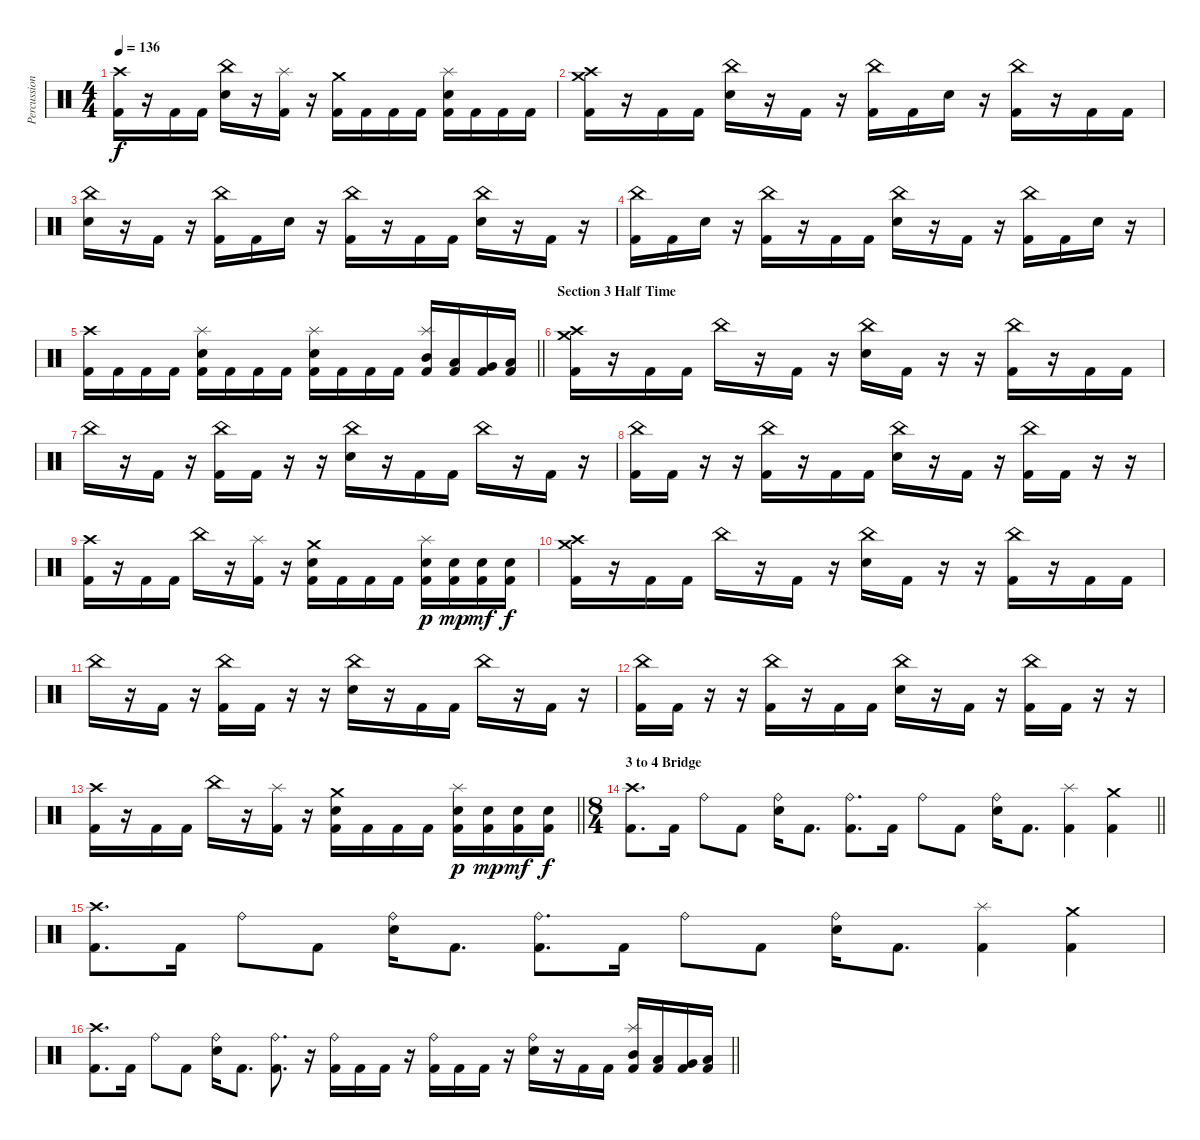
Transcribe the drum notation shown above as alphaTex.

\track ("Percussion" "Percussion") {instrument percussion}
\staff {score}
\articulation defaults
\ts (4 4)
\tempo 136
\clef neutral
\ks c
("Crash high (hit)" "Kick (hit) 2").16{dy f} r.16 "Kick (hit) 2".16 "Kick (hit) 2".16 ("China (hit)" "Electric Snare (hit)").16 r.16 ("Splash (hit)" "Kick (hit) 2").16 r.16 ("Crash medium (hit)" "Kick (hit) 2").16 "Kick (hit) 2".16 "Kick (hit) 2".16 "Kick (hit) 2".16 ("Splash (hit)" "Electric Snare (hit)" "Kick (hit) 2").16 "Kick (hit) 2".16 "Kick (hit) 2".16 "Kick (hit) 2".16 |
("Crash high (hit)" "Crash medium (hit)" "Kick (hit) 2").16 r.16 "Kick (hit) 2".16 "Kick (hit) 2".16 ("China (hit)" "Electric Snare (hit)").16 r.16 "Kick (hit) 2".16 r.16 ("China (hit)" "Kick (hit) 2").16 "Kick (hit) 2".16 "Electric Snare (hit)".16 r.16 ("China (hit)" "Kick (hit) 2").16 r.16 "Kick (hit) 2".16 "Kick (hit) 2".16 |
("China (hit)" "Electric Snare (hit)").16 r.16 "Kick (hit) 2".16 r.16 ("China (hit)" "Kick (hit) 2").16 "Kick (hit) 2".16 "Electric Snare (hit)".16 r.16 ("China (hit)" "Kick (hit) 2").16 r.16 "Kick (hit) 2".16 "Kick (hit) 2".16 ("China (hit)" "Electric Snare (hit)").16 r.16 "Kick (hit) 2".16 r.16 |
("China (hit)" "Kick (hit) 2").16 "Kick (hit) 2".16 "Electric Snare (hit)".16 r.16 ("China (hit)" "Kick (hit) 2").16 r.16 "Kick (hit) 2".16 "Kick (hit) 2".16 ("China (hit)" "Electric Snare (hit)").16 r.16 "Kick (hit) 2".16 r.16 ("China (hit)" "Kick (hit) 2").16 "Kick (hit) 2".16 "Electric Snare (hit)".16 r.16 |
\barLineRight lightlight
("Crash high (hit)" "Kick (hit) 2").16 "Kick (hit) 2".16 "Kick (hit) 2".16 "Kick (hit) 2".16 ("Splash (hit)" "Electric Snare (hit)" "Kick (hit) 2").16 "Kick (hit) 2".16 "Kick (hit) 2".16 "Kick (hit) 2".16 ("Splash (hit)" "Electric Snare (hit)" "Kick (hit) 2").16 "Kick (hit) 2".16 "Kick (hit) 2".16 "Kick (hit) 2".16 ("Splash (hit)" "Mid Tom (hit)" "Kick (hit) 2").16 ("Low Tom (hit)" "Kick (hit) 2").16 ("Very Low Tom (hit)" "Kick (hit) 2").16 ("Low Floor Tom (hit)" "Kick (hit) 2").16 |
\section ("" "Section 3 Half Time")
("Crash high (hit)" "Crash medium (hit)" "Kick (hit) 2").16 r.16 "Kick (hit) 2".16 "Kick (hit) 2".16 "China (hit)".16 r.16 "Kick (hit) 2".16 r.16 ("China (hit)" "Electric Snare (hit)").16 "Kick (hit) 2".16 r.16 r.16 ("China (hit)" "Kick (hit) 2").16 r.16 "Kick (hit) 2".16 "Kick (hit) 2".16 |
"China (hit)".16 r.16 "Kick (hit) 2".16 r.16 ("China (hit)" "Kick (hit) 2").16 "Kick (hit) 2".16 r.16 r.16 ("China (hit)" "Electric Snare (hit)").16 r.16 "Kick (hit) 2".16 "Kick (hit) 2".16 "China (hit)".16 r.16 "Kick (hit) 2".16 r.16 |
("China (hit)" "Kick (hit) 2").16 "Kick (hit) 2".16 r.16 r.16 ("China (hit)" "Kick (hit) 2").16 r.16 "Kick (hit) 2".16 "Kick (hit) 2".16 ("China (hit)" "Electric Snare (hit)").16 r.16 "Kick (hit) 2".16 r.16 ("China (hit)" "Kick (hit) 2").16 "Kick (hit) 2".16 r.16 r.16 |
("Crash high (hit)" "Kick (hit) 2").16 r.16 "Kick (hit) 2".16 "Kick (hit) 2".16 "China (hit)".16 r.16 ("Splash (hit)" "Kick (hit) 2").16 r.16 ("Crash medium (hit)" "Electric Snare (hit)" "Kick (hit) 2").16 "Kick (hit) 2".16 "Kick (hit) 2".16 "Kick (hit) 2".16 ("Splash (hit)" "Electric Snare (hit)" "Kick (hit) 2").16{dy p} ("Electric Snare (hit)" "Kick (hit) 2").16{dy mp} ("Electric Snare (hit)" "Kick (hit) 2").16{dy mf} ("Electric Snare (hit)" "Kick (hit) 2").16{dy f} |
("Crash high (hit)" "Crash medium (hit)" "Kick (hit) 2").16 r.16 "Kick (hit) 2".16 "Kick (hit) 2".16 "China (hit)".16 r.16 "Kick (hit) 2".16 r.16 ("China (hit)" "Electric Snare (hit)").16 "Kick (hit) 2".16 r.16 r.16 ("China (hit)" "Kick (hit) 2").16 r.16 "Kick (hit) 2".16 "Kick (hit) 2".16 |
"China (hit)".16 r.16 "Kick (hit) 2".16 r.16 ("China (hit)" "Kick (hit) 2").16 "Kick (hit) 2".16 r.16 r.16 ("China (hit)" "Electric Snare (hit)").16 r.16 "Kick (hit) 2".16 "Kick (hit) 2".16 "China (hit)".16 r.16 "Kick (hit) 2".16 r.16 |
("China (hit)" "Kick (hit) 2").16 "Kick (hit) 2".16 r.16 r.16 ("China (hit)" "Kick (hit) 2").16 r.16 "Kick (hit) 2".16 "Kick (hit) 2".16 ("China (hit)" "Electric Snare (hit)").16 r.16 "Kick (hit) 2".16 r.16 ("China (hit)" "Kick (hit) 2").16 "Kick (hit) 2".16 r.16 r.16 |
\barLineRight lightlight
("Crash high (hit)" "Kick (hit) 2").16 r.16 "Kick (hit) 2".16 "Kick (hit) 2".16 "China (hit)".16 r.16 ("Splash (hit)" "Kick (hit) 2").16 r.16 ("Crash medium (hit)" "Electric Snare (hit)" "Kick (hit) 2").16 "Kick (hit) 2".16 "Kick (hit) 2".16 "Kick (hit) 2".16 ("Splash (hit)" "Electric Snare (hit)" "Kick (hit) 2").16{dy p} ("Electric Snare (hit)" "Kick (hit) 2").16{dy mp} ("Electric Snare (hit)" "Kick (hit) 2").16{dy mf} ("Electric Snare (hit)" "Kick (hit) 2").16{dy f} |
\ts (8 4)
\section ("" "3 to 4 Bridge")
\barLineRight lightlight
("Crash high (hit)" "Kick (hit) 2").8{d} "Kick (hit) 2".16 "Ride (bell)".8 "Kick (hit) 2".8 ("Ride (bell)" "Electric Snare (hit)").16 "Kick (hit) 2".8{d} ("Ride (bell)" "Kick (hit) 2").8{d} "Kick (hit) 2".16 "Ride (bell)".8 "Kick (hit) 2".8 ("Ride (bell)" "Electric Snare (hit)").16 "Kick (hit) 2".8{d} ("Splash (hit)" "Kick (hit) 2").4 ("Crash medium (hit)" "Kick (hit) 2").4 |
("Crash high (hit)" "Kick (hit) 2").8{d} "Kick (hit) 2".16 "Ride (bell)".8 "Kick (hit) 2".8 ("Ride (bell)" "Electric Snare (hit)").16 "Kick (hit) 2".8{d} ("Ride (bell)" "Kick (hit) 2").8{d} "Kick (hit) 2".16 "Ride (bell)".8 "Kick (hit) 2".8 ("Ride (bell)" "Electric Snare (hit)").16 "Kick (hit) 2".8{d} ("Splash (hit)" "Kick (hit) 2").4 ("Crash medium (hit)" "Kick (hit) 2").4 |
\barLineRight lightlight
("Crash high (hit)" "Kick (hit) 2").8{d} "Kick (hit) 2".16 "Ride (bell)".8 "Kick (hit) 2".8 ("Ride (bell)" "Electric Snare (hit)").16 "Kick (hit) 2".8{d} ("Ride (bell)" "Kick (hit) 2").8{d} r.16 ("Ride (bell)" "Kick (hit) 2").16 "Kick (hit) 2".16 "Kick (hit) 2".16 r.16 ("Ride (bell)" "Kick (hit) 2").16 "Kick (hit) 2".16 "Kick (hit) 2".16 r.16 ("Ride (bell)" "Electric Snare (hit)").16 r.16 "Kick (hit) 2".16 "Kick (hit) 2".16 ("Splash (hit)" "Mid Tom (hit)" "Kick (hit) 2").16 ("Low Tom (hit)" "Kick (hit) 2").16 ("Very Low Tom (hit)" "Kick (hit) 2").16 ("Low Floor Tom (hit)" "Kick (hit) 2").16
